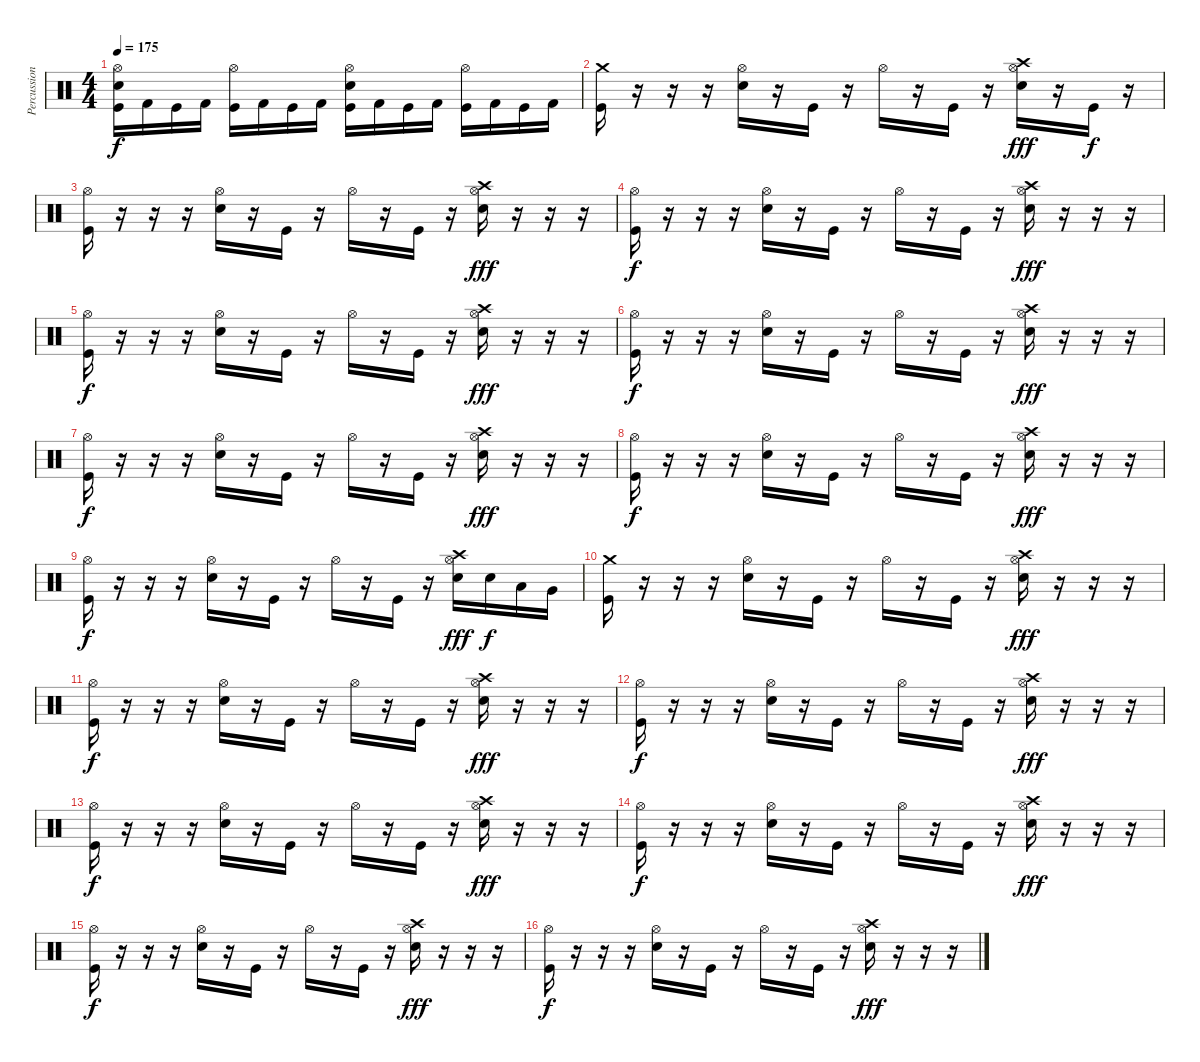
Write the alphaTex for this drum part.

\track ("Percussions" "Percussion") {instrument percussion}
\staff {score}
\articulation defaults
\ts (4 4)
\tempo 175
\clef neutral
\ks c
("Hi-Hat (open)" "Electric Snare (hit)" "Kick (hit)").16{dy f} "Kick (hit) 2".16 "Kick (hit)".16 "Kick (hit) 2".16 ("Hi-Hat (open)" "Kick (hit)").16 "Kick (hit) 2".16 "Kick (hit)".16 "Kick (hit) 2".16 ("Hi-Hat (open)" "Electric Snare (hit)" "Kick (hit)").16 "Kick (hit) 2".16 "Kick (hit)".16 "Kick (hit) 2".16 ("Hi-Hat (open)" "Kick (hit)").16 "Kick (hit) 2".16 "Kick (hit)".16 "Kick (hit) 2".16 |
("Crash medium (hit)" "Kick (hit)").16 r.16 r.16 r.16 ("Hi-Hat (open)" "Electric Snare (hit)").16 r.16 "Kick (hit)".16 r.16 "Hi-Hat (open)".16 r.16 "Kick (hit)".16 r.16 ("Hi-Hat (open)" "Crash high (hit)" "Electric Snare (hit)").16{dy fff} r.16 "Kick (hit)".16{dy f} r.16 |
("Hi-Hat (open)" "Kick (hit)").16 r.16 r.16 r.16 ("Hi-Hat (open)" "Electric Snare (hit)").16 r.16 "Kick (hit)".16 r.16 "Hi-Hat (open)".16 r.16 "Kick (hit)".16 r.16 ("Hi-Hat (open)" "Crash high (hit)" "Electric Snare (hit)").16{dy fff} r.16 r.16 r.16 |
("Hi-Hat (open)" "Kick (hit)").16{dy f} r.16 r.16 r.16 ("Hi-Hat (open)" "Electric Snare (hit)").16 r.16 "Kick (hit)".16 r.16 "Hi-Hat (open)".16 r.16 "Kick (hit)".16 r.16 ("Hi-Hat (open)" "Crash high (hit)" "Electric Snare (hit)").16{dy fff} r.16 r.16 r.16 |
("Hi-Hat (open)" "Kick (hit)").16{dy f} r.16 r.16 r.16 ("Hi-Hat (open)" "Electric Snare (hit)").16 r.16 "Kick (hit)".16 r.16 "Hi-Hat (open)".16 r.16 "Kick (hit)".16 r.16 ("Hi-Hat (open)" "Crash high (hit)" "Electric Snare (hit)").16{dy fff} r.16 r.16 r.16 |
("Hi-Hat (open)" "Kick (hit)").16{dy f} r.16 r.16 r.16 ("Hi-Hat (open)" "Electric Snare (hit)").16 r.16 "Kick (hit)".16 r.16 "Hi-Hat (open)".16 r.16 "Kick (hit)".16 r.16 ("Hi-Hat (open)" "Crash high (hit)" "Electric Snare (hit)").16{dy fff} r.16 r.16 r.16 |
("Hi-Hat (open)" "Kick (hit)").16{dy f} r.16 r.16 r.16 ("Hi-Hat (open)" "Electric Snare (hit)").16 r.16 "Kick (hit)".16 r.16 "Hi-Hat (open)".16 r.16 "Kick (hit)".16 r.16 ("Hi-Hat (open)" "Crash high (hit)" "Electric Snare (hit)").16{dy fff} r.16 r.16 r.16 |
("Hi-Hat (open)" "Kick (hit)").16{dy f} r.16 r.16 r.16 ("Hi-Hat (open)" "Electric Snare (hit)").16 r.16 "Kick (hit)".16 r.16 "Hi-Hat (open)".16 r.16 "Kick (hit)".16 r.16 ("Hi-Hat (open)" "Crash high (hit)" "Electric Snare (hit)").16{dy fff} r.16 r.16 r.16 |
("Hi-Hat (open)" "Kick (hit)").16{dy f} r.16 r.16 r.16 ("Hi-Hat (open)" "Electric Snare (hit)").16 r.16 "Kick (hit)".16 r.16 "Hi-Hat (open)".16 r.16 "Kick (hit)".16 r.16 ("Hi-Hat (open)" "Crash high (hit)" "Electric Snare (hit)").16{dy fff} "Electric Snare (hit)".16{dy f} "Low Tom (hit)".16 "Very Low Tom (hit)".16 |
("Crash medium (hit)" "Kick (hit)").16 r.16 r.16 r.16 ("Hi-Hat (open)" "Electric Snare (hit)").16 r.16 "Kick (hit)".16 r.16 "Hi-Hat (open)".16 r.16 "Kick (hit)".16 r.16 ("Hi-Hat (open)" "Crash high (hit)" "Electric Snare (hit)").16{dy fff} r.16 r.16 r.16 |
("Hi-Hat (open)" "Kick (hit)").16{dy f} r.16 r.16 r.16 ("Hi-Hat (open)" "Electric Snare (hit)").16 r.16 "Kick (hit)".16 r.16 "Hi-Hat (open)".16 r.16 "Kick (hit)".16 r.16 ("Hi-Hat (open)" "Crash high (hit)" "Electric Snare (hit)").16{dy fff} r.16 r.16 r.16 |
("Hi-Hat (open)" "Kick (hit)").16{dy f} r.16 r.16 r.16 ("Hi-Hat (open)" "Electric Snare (hit)").16 r.16 "Kick (hit)".16 r.16 "Hi-Hat (open)".16 r.16 "Kick (hit)".16 r.16 ("Hi-Hat (open)" "Crash high (hit)" "Electric Snare (hit)").16{dy fff} r.16 r.16 r.16 |
("Hi-Hat (open)" "Kick (hit)").16{dy f} r.16 r.16 r.16 ("Hi-Hat (open)" "Electric Snare (hit)").16 r.16 "Kick (hit)".16 r.16 "Hi-Hat (open)".16 r.16 "Kick (hit)".16 r.16 ("Hi-Hat (open)" "Crash high (hit)" "Electric Snare (hit)").16{dy fff} r.16 r.16 r.16 |
("Hi-Hat (open)" "Kick (hit)").16{dy f} r.16 r.16 r.16 ("Hi-Hat (open)" "Electric Snare (hit)").16 r.16 "Kick (hit)".16 r.16 "Hi-Hat (open)".16 r.16 "Kick (hit)".16 r.16 ("Hi-Hat (open)" "Crash high (hit)" "Electric Snare (hit)").16{dy fff} r.16 r.16 r.16 |
("Hi-Hat (open)" "Kick (hit)").16{dy f} r.16 r.16 r.16 ("Hi-Hat (open)" "Electric Snare (hit)").16 r.16 "Kick (hit)".16 r.16 "Hi-Hat (open)".16 r.16 "Kick (hit)".16 r.16 ("Hi-Hat (open)" "Crash high (hit)" "Electric Snare (hit)").16{dy fff} r.16 r.16 r.16 |
("Hi-Hat (open)" "Kick (hit)").16{dy f} r.16 r.16 r.16 ("Hi-Hat (open)" "Electric Snare (hit)").16 r.16 "Kick (hit)".16 r.16 "Hi-Hat (open)".16 r.16 "Kick (hit)".16 r.16 ("Hi-Hat (open)" "Crash high (hit)" "Electric Snare (hit)").16{dy fff} r.16 r.16 r.16
